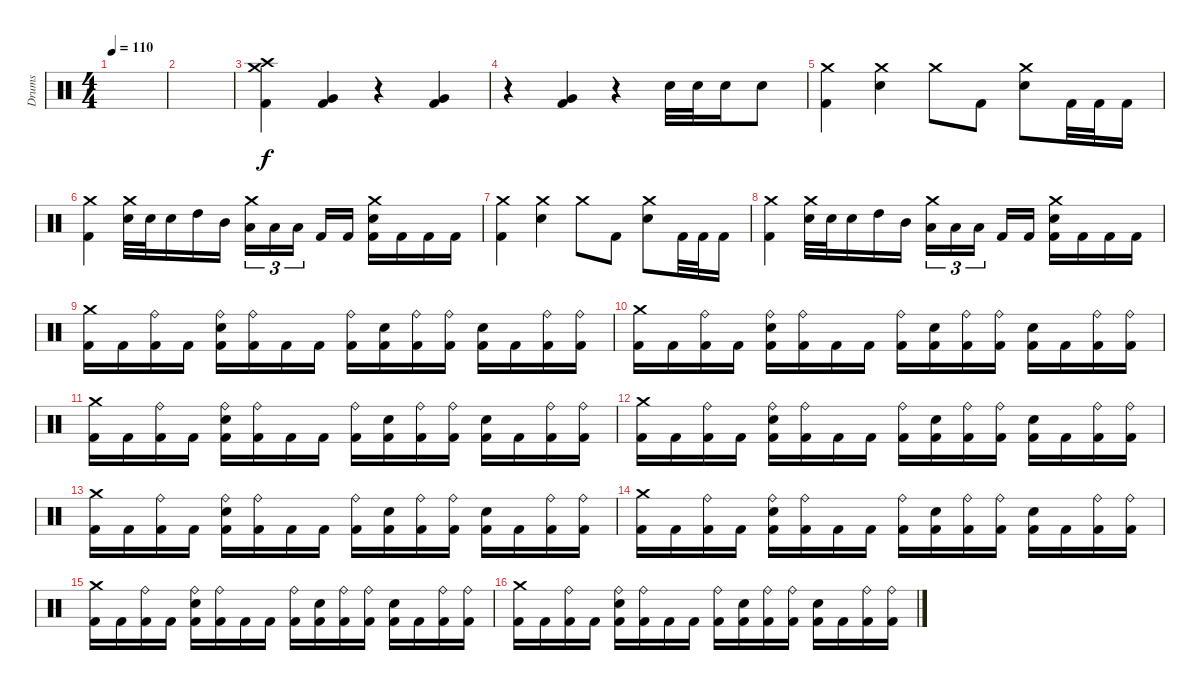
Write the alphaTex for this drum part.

\track ("Drums" "Drums") {instrument percussion}
\staff {score}
\articulation defaults
\ts (4 4)
\tempo 110
\clef neutral
\ks c
|
|
("Crash medium (hit)" "Crash high (hit)" "Kick (hit) 2").4 ("Very Low Tom (hit)" "Kick (hit) 2").4 r.4 ("Very Low Tom (hit)" "Kick (hit) 2").4 |
r.4 ("Very Low Tom (hit)" "Kick (hit) 2").4 r.4 "Electric Snare (hit)".32 "Electric Snare (hit)".32 "Electric Snare (hit)".16 "Electric Snare (hit)".8 |
("Crash medium (hit)" "Kick (hit) 2").4 ("Crash medium (hit)" "Electric Snare (hit)").4 "Crash medium (hit)".8 "Kick (hit) 2".8 ("Crash medium (hit)" "Electric Snare (hit)").8 "Kick (hit) 2".32 "Kick (hit) 2".32 "Kick (hit) 2".16 |
("Crash medium (hit)" "Kick (hit) 2").4 ("Crash medium (hit)" "Electric Snare (hit)").32 "Electric Snare (hit)".32 "Electric Snare (hit)".16 "High Tom (hit)".16 "Mid Tom (hit)".16 ("Crash medium (hit)" "Low Tom (hit)").16{tu (3 2)} "Low Tom (hit)".16{tu (3 2)} "Low Tom (hit)".16{tu (3 2)} "Kick (hit) 2".16 "Kick (hit) 2".16 ("Crash medium (hit)" "Electric Snare (hit)" "Kick (hit) 2").16 "Kick (hit) 2".16 "Kick (hit) 2".16 "Kick (hit) 2".16 |
("Crash medium (hit)" "Kick (hit) 2").4 ("Crash medium (hit)" "Electric Snare (hit)").4 "Crash medium (hit)".8 "Kick (hit) 2".8 ("Crash medium (hit)" "Electric Snare (hit)").8 "Kick (hit) 2".32 "Kick (hit) 2".32 "Kick (hit) 2".16 |
("Crash medium (hit)" "Kick (hit) 2").4 ("Crash medium (hit)" "Electric Snare (hit)").32 "Electric Snare (hit)".32 "Electric Snare (hit)".16 "High Tom (hit)".16 "Mid Tom (hit)".16 ("Crash medium (hit)" "Low Tom (hit)").16{tu (3 2)} "Low Tom (hit)".16{tu (3 2)} "Low Tom (hit)".16{tu (3 2)} "Kick (hit) 2".16 "Kick (hit) 2".16 ("Crash medium (hit)" "Electric Snare (hit)" "Kick (hit) 2").16 "Kick (hit) 2".16 "Kick (hit) 2".16 "Kick (hit) 2".16 |
("Crash medium (hit)" "Kick (hit) 2").16 "Kick (hit) 2".16 ("Ride (bell)" "Kick (hit) 2").16 "Kick (hit) 2".16 ("Ride (bell)" "Electric Snare (hit)" "Kick (hit) 2").16 ("Ride (bell)" "Kick (hit) 2").16 "Kick (hit) 2".16 "Kick (hit) 2".16 ("Ride (bell)" "Kick (hit) 2").16 ("Electric Snare (hit)" "Kick (hit) 2").16 ("Ride (bell)" "Kick (hit) 2").16 ("Ride (bell)" "Kick (hit) 2").16 ("Electric Snare (hit)" "Kick (hit) 2").16 "Kick (hit) 2".16 ("Ride (bell)" "Kick (hit) 2").16 ("Ride (bell)" "Kick (hit) 2").16 |
("Crash medium (hit)" "Kick (hit) 2").16 "Kick (hit) 2".16 ("Ride (bell)" "Kick (hit) 2").16 "Kick (hit) 2".16 ("Ride (bell)" "Electric Snare (hit)" "Kick (hit) 2").16 ("Ride (bell)" "Kick (hit) 2").16 "Kick (hit) 2".16 "Kick (hit) 2".16 ("Ride (bell)" "Kick (hit) 2").16 ("Electric Snare (hit)" "Kick (hit) 2").16 ("Ride (bell)" "Kick (hit) 2").16 ("Ride (bell)" "Kick (hit) 2").16 ("Electric Snare (hit)" "Kick (hit) 2").16 "Kick (hit) 2".16 ("Ride (bell)" "Kick (hit) 2").16 ("Ride (bell)" "Kick (hit) 2").16 |
("Crash medium (hit)" "Kick (hit) 2").16 "Kick (hit) 2".16 ("Ride (bell)" "Kick (hit) 2").16 "Kick (hit) 2".16 ("Ride (bell)" "Electric Snare (hit)" "Kick (hit) 2").16 ("Ride (bell)" "Kick (hit) 2").16 "Kick (hit) 2".16 "Kick (hit) 2".16 ("Ride (bell)" "Kick (hit) 2").16 ("Electric Snare (hit)" "Kick (hit) 2").16 ("Ride (bell)" "Kick (hit) 2").16 ("Ride (bell)" "Kick (hit) 2").16 ("Electric Snare (hit)" "Kick (hit) 2").16 "Kick (hit) 2".16 ("Ride (bell)" "Kick (hit) 2").16 ("Ride (bell)" "Kick (hit) 2").16 |
("Crash medium (hit)" "Kick (hit) 2").16 "Kick (hit) 2".16 ("Ride (bell)" "Kick (hit) 2").16 "Kick (hit) 2".16 ("Ride (bell)" "Electric Snare (hit)" "Kick (hit) 2").16 ("Ride (bell)" "Kick (hit) 2").16 "Kick (hit) 2".16 "Kick (hit) 2".16 ("Ride (bell)" "Kick (hit) 2").16 ("Electric Snare (hit)" "Kick (hit) 2").16 ("Ride (bell)" "Kick (hit) 2").16 ("Ride (bell)" "Kick (hit) 2").16 ("Electric Snare (hit)" "Kick (hit) 2").16 "Kick (hit) 2".16 ("Ride (bell)" "Kick (hit) 2").16 ("Ride (bell)" "Kick (hit) 2").16 |
("Crash medium (hit)" "Kick (hit) 2").16 "Kick (hit) 2".16 ("Ride (bell)" "Kick (hit) 2").16 "Kick (hit) 2".16 ("Ride (bell)" "Electric Snare (hit)" "Kick (hit) 2").16 ("Ride (bell)" "Kick (hit) 2").16 "Kick (hit) 2".16 "Kick (hit) 2".16 ("Ride (bell)" "Kick (hit) 2").16 ("Electric Snare (hit)" "Kick (hit) 2").16 ("Ride (bell)" "Kick (hit) 2").16 ("Ride (bell)" "Kick (hit) 2").16 ("Electric Snare (hit)" "Kick (hit) 2").16 "Kick (hit) 2".16 ("Ride (bell)" "Kick (hit) 2").16 ("Ride (bell)" "Kick (hit) 2").16 |
("Crash medium (hit)" "Kick (hit) 2").16 "Kick (hit) 2".16 ("Ride (bell)" "Kick (hit) 2").16 "Kick (hit) 2".16 ("Ride (bell)" "Electric Snare (hit)" "Kick (hit) 2").16 ("Ride (bell)" "Kick (hit) 2").16 "Kick (hit) 2".16 "Kick (hit) 2".16 ("Ride (bell)" "Kick (hit) 2").16 ("Electric Snare (hit)" "Kick (hit) 2").16 ("Ride (bell)" "Kick (hit) 2").16 ("Ride (bell)" "Kick (hit) 2").16 ("Electric Snare (hit)" "Kick (hit) 2").16 "Kick (hit) 2".16 ("Ride (bell)" "Kick (hit) 2").16 ("Ride (bell)" "Kick (hit) 2").16 |
("Crash medium (hit)" "Kick (hit) 2").16 "Kick (hit) 2".16 ("Ride (bell)" "Kick (hit) 2").16 "Kick (hit) 2".16 ("Ride (bell)" "Electric Snare (hit)" "Kick (hit) 2").16 ("Ride (bell)" "Kick (hit) 2").16 "Kick (hit) 2".16 "Kick (hit) 2".16 ("Ride (bell)" "Kick (hit) 2").16 ("Electric Snare (hit)" "Kick (hit) 2").16 ("Ride (bell)" "Kick (hit) 2").16 ("Ride (bell)" "Kick (hit) 2").16 ("Electric Snare (hit)" "Kick (hit) 2").16 "Kick (hit) 2".16 ("Ride (bell)" "Kick (hit) 2").16 ("Ride (bell)" "Kick (hit) 2").16 |
("Crash medium (hit)" "Kick (hit) 2").16 "Kick (hit) 2".16 ("Ride (bell)" "Kick (hit) 2").16 "Kick (hit) 2".16 ("Ride (bell)" "Electric Snare (hit)" "Kick (hit) 2").16 ("Ride (bell)" "Kick (hit) 2").16 "Kick (hit) 2".16 "Kick (hit) 2".16 ("Ride (bell)" "Kick (hit) 2").16 ("Electric Snare (hit)" "Kick (hit) 2").16 ("Ride (bell)" "Kick (hit) 2").16 ("Ride (bell)" "Kick (hit) 2").16 ("Electric Snare (hit)" "Kick (hit) 2").16 "Kick (hit) 2".16 ("Ride (bell)" "Kick (hit) 2").16 ("Ride (bell)" "Kick (hit) 2").16
